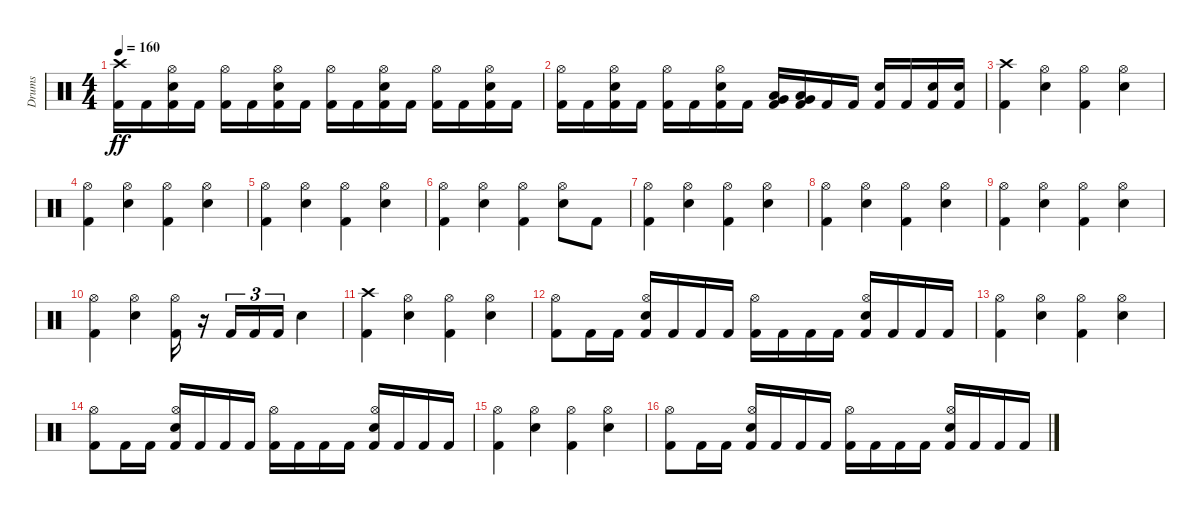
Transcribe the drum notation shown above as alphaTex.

\track ("Drums" "Drums") {instrument percussion}
\staff {score}
\articulation defaults
\ts (4 4)
\tempo 160
\clef neutral
\ks c
("Crash high (hit)" "Kick (hit) 2").16{dy ff} "Kick (hit) 2".16 ("Hi-Hat (open)" "Electric Snare (hit)" "Kick (hit) 2").16 "Kick (hit) 2".16 ("Hi-Hat (open)" "Kick (hit) 2").16 "Kick (hit) 2".16 ("Hi-Hat (open)" "Electric Snare (hit)" "Kick (hit) 2").16 "Kick (hit) 2".16 ("Hi-Hat (open)" "Kick (hit) 2").16 "Kick (hit) 2".16 ("Hi-Hat (open)" "Electric Snare (hit)" "Kick (hit) 2").16 "Kick (hit) 2".16 ("Hi-Hat (open)" "Kick (hit) 2").16 "Kick (hit) 2".16 ("Hi-Hat (open)" "Electric Snare (hit)" "Kick (hit) 2").16 "Kick (hit) 2".16 |
("Hi-Hat (open)" "Kick (hit) 2").16 "Kick (hit) 2".16 ("Hi-Hat (open)" "Electric Snare (hit)" "Kick (hit) 2").16 "Kick (hit) 2".16 ("Hi-Hat (open)" "Kick (hit) 2").16 "Kick (hit) 2".16 ("Hi-Hat (open)" "Electric Snare (hit)" "Kick (hit) 2").16 "Kick (hit) 2".16 ("Low Tom (hit)" "Very Low Tom (hit)" "Kick (hit) 2").16 ("Low Tom (hit)" "Very Low Tom (hit)" "Kick (hit) 2").16 "Kick (hit) 2".16 "Kick (hit) 2".16 ("Electric Snare (hit)" "Kick (hit) 2").16 "Kick (hit) 2".16 ("Electric Snare (hit)" "Kick (hit) 2").16 ("Electric Snare (hit)" "Kick (hit) 2").16 |
("Crash high (hit)" "Kick (hit) 2").4 ("Hi-Hat (open)" "Electric Snare (hit)").4 ("Hi-Hat (open)" "Kick (hit) 2").4 ("Hi-Hat (open)" "Electric Snare (hit)").4 |
("Hi-Hat (open)" "Kick (hit) 2").4 ("Hi-Hat (open)" "Electric Snare (hit)").4 ("Hi-Hat (open)" "Kick (hit) 2").4 ("Hi-Hat (open)" "Electric Snare (hit)").4 |
("Hi-Hat (open)" "Kick (hit) 2").4 ("Hi-Hat (open)" "Electric Snare (hit)").4 ("Hi-Hat (open)" "Kick (hit) 2").4 ("Hi-Hat (open)" "Electric Snare (hit)").4 |
("Hi-Hat (open)" "Kick (hit) 2").4 ("Hi-Hat (open)" "Electric Snare (hit)").4 ("Hi-Hat (open)" "Kick (hit) 2").4 ("Hi-Hat (open)" "Electric Snare (hit)").8 "Kick (hit) 2".8 |
("Hi-Hat (open)" "Kick (hit) 2").4 ("Hi-Hat (open)" "Electric Snare (hit)").4 ("Hi-Hat (open)" "Kick (hit) 2").4 ("Hi-Hat (open)" "Electric Snare (hit)").4 |
("Hi-Hat (open)" "Kick (hit) 2").4 ("Hi-Hat (open)" "Electric Snare (hit)").4 ("Hi-Hat (open)" "Kick (hit) 2").4 ("Hi-Hat (open)" "Electric Snare (hit)").4 |
("Hi-Hat (open)" "Kick (hit) 2").4 ("Hi-Hat (open)" "Electric Snare (hit)").4 ("Hi-Hat (open)" "Kick (hit) 2").4 ("Hi-Hat (open)" "Electric Snare (hit)").4 |
("Hi-Hat (open)" "Kick (hit) 2").4 ("Hi-Hat (open)" "Electric Snare (hit)").4 ("Hi-Hat (open)" "Kick (hit) 2").16 r.16 "Kick (hit) 2".16{tu (3 2)} "Kick (hit) 2".16{tu (3 2)} "Kick (hit) 2".16{tu (3 2)} "Electric Snare (hit)".4 |
("Crash high (hit)" "Kick (hit) 2").4 ("Hi-Hat (open)" "Electric Snare (hit)").4 ("Hi-Hat (open)" "Kick (hit) 2").4 ("Hi-Hat (open)" "Electric Snare (hit)").4 |
("Hi-Hat (open)" "Kick (hit) 2").8 "Kick (hit) 2".16 "Kick (hit) 2".16 ("Hi-Hat (open)" "Electric Snare (hit)" "Kick (hit) 2").16 "Kick (hit) 2".16 "Kick (hit) 2".16 "Kick (hit) 2".16 ("Hi-Hat (open)" "Kick (hit) 2").16 "Kick (hit) 2".16 "Kick (hit) 2".16 "Kick (hit) 2".16 ("Hi-Hat (open)" "Electric Snare (hit)" "Kick (hit) 2").16 "Kick (hit) 2".16 "Kick (hit) 2".16 "Kick (hit) 2".16 |
("Hi-Hat (open)" "Kick (hit) 2").4 ("Hi-Hat (open)" "Electric Snare (hit)").4 ("Hi-Hat (open)" "Kick (hit) 2").4 ("Hi-Hat (open)" "Electric Snare (hit)").4 |
("Hi-Hat (open)" "Kick (hit) 2").8 "Kick (hit) 2".16 "Kick (hit) 2".16 ("Hi-Hat (open)" "Electric Snare (hit)" "Kick (hit) 2").16 "Kick (hit) 2".16 "Kick (hit) 2".16 "Kick (hit) 2".16 ("Hi-Hat (open)" "Kick (hit) 2").16 "Kick (hit) 2".16 "Kick (hit) 2".16 "Kick (hit) 2".16 ("Hi-Hat (open)" "Electric Snare (hit)" "Kick (hit) 2").16 "Kick (hit) 2".16 "Kick (hit) 2".16 "Kick (hit) 2".16 |
("Hi-Hat (open)" "Kick (hit) 2").4 ("Hi-Hat (open)" "Electric Snare (hit)").4 ("Hi-Hat (open)" "Kick (hit) 2").4 ("Hi-Hat (open)" "Electric Snare (hit)").4 |
("Hi-Hat (open)" "Kick (hit) 2").8 "Kick (hit) 2".16 "Kick (hit) 2".16 ("Hi-Hat (open)" "Electric Snare (hit)" "Kick (hit) 2").16 "Kick (hit) 2".16 "Kick (hit) 2".16 "Kick (hit) 2".16 ("Hi-Hat (open)" "Kick (hit) 2").16 "Kick (hit) 2".16 "Kick (hit) 2".16 "Kick (hit) 2".16 ("Hi-Hat (open)" "Electric Snare (hit)" "Kick (hit) 2").16 "Kick (hit) 2".16 "Kick (hit) 2".16 "Kick (hit) 2".16
